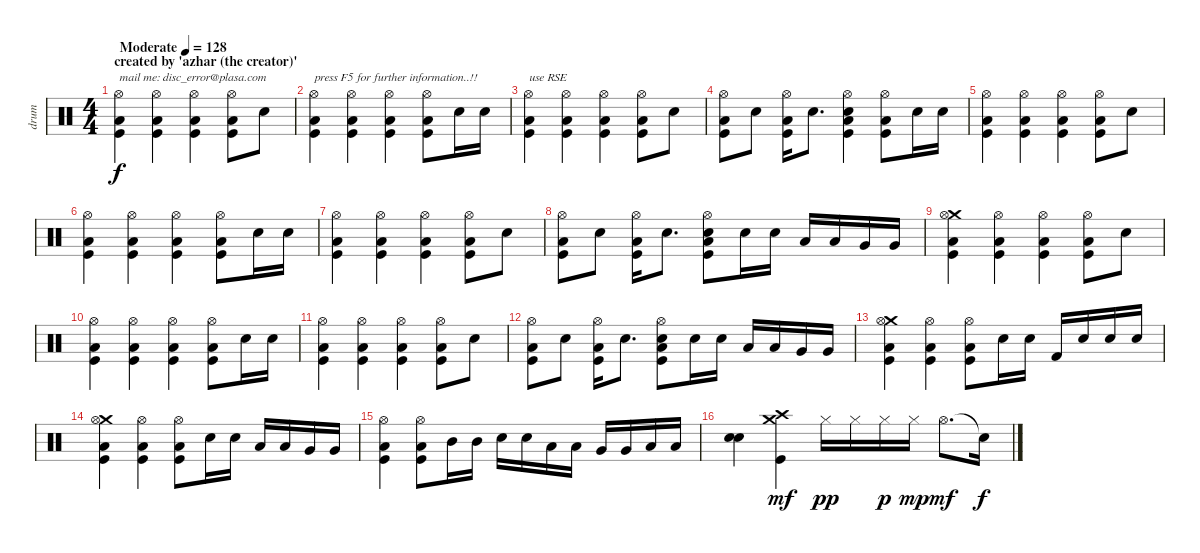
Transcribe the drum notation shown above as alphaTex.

\track ("drum" "drum") {instrument percussion}
\staff {score}
\articulation defaults
\ts (4 4)
\section ("" "created by 'azhar (the creator)'")
\tempo (128 "Moderate")
\clef neutral
\ks c
("Hi-Hat (open)" "Low Floor Tom (hit)" "Kick (hit)").4{txt "mail me: disc_error@plasa.com" dy f} ("Hi-Hat (open)" "Low Floor Tom (hit)" "Kick (hit)").4 ("Hi-Hat (open)" "Low Floor Tom (hit)" "Kick (hit)").4 ("Hi-Hat (open)" "Low Floor Tom (hit)" "Kick (hit)").8 "Snare (hit) 2".8 |
("Hi-Hat (open)" "Low Floor Tom (hit)" "Kick (hit)").4{txt "press F5 for further information..!!"} ("Hi-Hat (open)" "Low Floor Tom (hit)" "Kick (hit)").4 ("Hi-Hat (open)" "Low Floor Tom (hit)" "Kick (hit)").4 ("Hi-Hat (open)" "Low Floor Tom (hit)" "Kick (hit)").8 "Snare (hit) 2".16 "Snare (hit) 2".16 |
("Hi-Hat (open)" "Low Floor Tom (hit)" "Kick (hit)").4{txt "use RSE"} ("Hi-Hat (open)" "Low Floor Tom (hit)" "Kick (hit)").4 ("Hi-Hat (open)" "Low Floor Tom (hit)" "Kick (hit)").4 ("Hi-Hat (open)" "Low Floor Tom (hit)" "Kick (hit)").8 "Snare (hit) 2".8 |
("Hi-Hat (open)" "Low Floor Tom (hit)" "Kick (hit)").8 "Snare (hit) 2".8 ("Hi-Hat (open)" "Low Floor Tom (hit)" "Kick (hit)").16 "Snare (hit) 2".8{d} ("Hi-Hat (open)" "Snare (hit) 2" "Low Floor Tom (hit)" "Kick (hit)").4 ("Hi-Hat (open)" "Low Floor Tom (hit)" "Kick (hit)").8 "Snare (hit) 2".16 "Snare (hit) 2".16 |
("Hi-Hat (open)" "Low Floor Tom (hit)" "Kick (hit)").4 ("Hi-Hat (open)" "Low Floor Tom (hit)" "Kick (hit)").4 ("Hi-Hat (open)" "Low Floor Tom (hit)" "Kick (hit)").4 ("Hi-Hat (open)" "Low Floor Tom (hit)" "Kick (hit)").8 "Snare (hit) 2".8 |
("Hi-Hat (open)" "Low Floor Tom (hit)" "Kick (hit)").4 ("Hi-Hat (open)" "Low Floor Tom (hit)" "Kick (hit)").4 ("Hi-Hat (open)" "Low Floor Tom (hit)" "Kick (hit)").4 ("Hi-Hat (open)" "Low Floor Tom (hit)" "Kick (hit)").8 "Snare (hit) 2".16 "Snare (hit) 2".16 |
("Hi-Hat (open)" "Low Floor Tom (hit)" "Kick (hit)").4 ("Hi-Hat (open)" "Low Floor Tom (hit)" "Kick (hit)").4 ("Hi-Hat (open)" "Low Floor Tom (hit)" "Kick (hit)").4 ("Hi-Hat (open)" "Low Floor Tom (hit)" "Kick (hit)").8 "Snare (hit) 2".8 |
("Hi-Hat (open)" "Low Floor Tom (hit)" "Kick (hit)").8 "Snare (hit) 2".8 ("Hi-Hat (open)" "Low Floor Tom (hit)" "Kick (hit)").16 "Snare (hit) 2".8{d} ("Hi-Hat (open)" "Snare (hit) 2" "Low Floor Tom (hit)" "Kick (hit)").8 "Snare (hit) 2".16 "Snare (hit) 2".16 "Low Tom (hit)".16 "Low Tom (hit)".16 "Very Low Tom (hit)".16 "Very Low Tom (hit)".16 |
("Crash medium (hit)" "Hi-Hat (open)" "Low Floor Tom (hit)" "Kick (hit)").4 ("Hi-Hat (open)" "Low Floor Tom (hit)" "Kick (hit)").4 ("Hi-Hat (open)" "Low Floor Tom (hit)" "Kick (hit)").4 ("Hi-Hat (open)" "Low Floor Tom (hit)" "Kick (hit)").8 "Snare (hit) 2".8 |
("Hi-Hat (open)" "Low Floor Tom (hit)" "Kick (hit)").4 ("Hi-Hat (open)" "Low Floor Tom (hit)" "Kick (hit)").4 ("Hi-Hat (open)" "Low Floor Tom (hit)" "Kick (hit)").4 ("Hi-Hat (open)" "Low Floor Tom (hit)" "Kick (hit)").8 "Snare (hit) 2".16 "Snare (hit) 2".16 |
("Hi-Hat (open)" "Low Floor Tom (hit)" "Kick (hit)").4 ("Hi-Hat (open)" "Low Floor Tom (hit)" "Kick (hit)").4 ("Hi-Hat (open)" "Low Floor Tom (hit)" "Kick (hit)").4 ("Hi-Hat (open)" "Low Floor Tom (hit)" "Kick (hit)").8 "Snare (hit) 2".8 |
("Hi-Hat (open)" "Low Floor Tom (hit)" "Kick (hit)").8 "Snare (hit) 2".8 ("Hi-Hat (open)" "Low Floor Tom (hit)" "Kick (hit)").16 "Snare (hit) 2".8{d} ("Hi-Hat (open)" "Snare (hit) 2" "Low Floor Tom (hit)" "Kick (hit)").8 "Snare (hit) 2".16 "Snare (hit) 2".16 "Low Tom (hit)".16 "Low Tom (hit)".16 "Very Low Tom (hit)".16 "Very Low Tom (hit)".16 |
("Crash medium (hit)" "Hi-Hat (open)" "Low Floor Tom (hit)" "Kick (hit)").4 ("Hi-Hat (open)" "Low Floor Tom (hit)" "Kick (hit)").4 ("Hi-Hat (open)" "Low Floor Tom (hit)" "Kick (hit)").8 "Snare (hit) 2".16 "Snare (hit) 2".16 "Kick (hit) 2".16 "Snare (hit) 2".16 "Snare (hit) 2".16 "Snare (hit) 2".16 |
("Crash medium (hit)" "Hi-Hat (open)" "Low Floor Tom (hit)" "Kick (hit)").4 ("Hi-Hat (open)" "Low Floor Tom (hit)" "Kick (hit)").4 ("Hi-Hat (open)" "Low Floor Tom (hit)" "Kick (hit)").8 "Snare (hit) 2".16 "Snare (hit) 2".16 "Low Tom (hit)".16 "Low Tom (hit)".16 "Very Low Tom (hit)".16 "Very Low Tom (hit)".16 |
("Hi-Hat (open)" "Low Floor Tom (hit)" "Kick (hit)").4 ("Hi-Hat (open)" "Low Floor Tom (hit)" "Kick (hit)").8 "Mid Tom (hit)".16 "Mid Tom (hit)".16 "Snare (hit) 2".16 "Snare (hit) 2".16 "Low Tom (hit)".16 "Low Tom (hit)".16 "Very Low Tom (hit)".16 "Very Low Tom (hit)".16 "Low Floor Tom (hit)".16 "Low Floor Tom (hit)".16 |
("Snare (hit) 2" "Snare (hit) 2").4{bd 240} ("Crash high (hit)" "Crash medium (hit)" "Kick (hit)").4{dy mf} "Hi-Hat (closed)".16{dy pp} "Hi-Hat (closed)".16 "Hi-Hat (closed)".16{dy p} "Hi-Hat (closed)".16{dy mp} "Hi-Hat (open)".8{d dy mf} "Snare (hit)"{t}.16{dy f}
